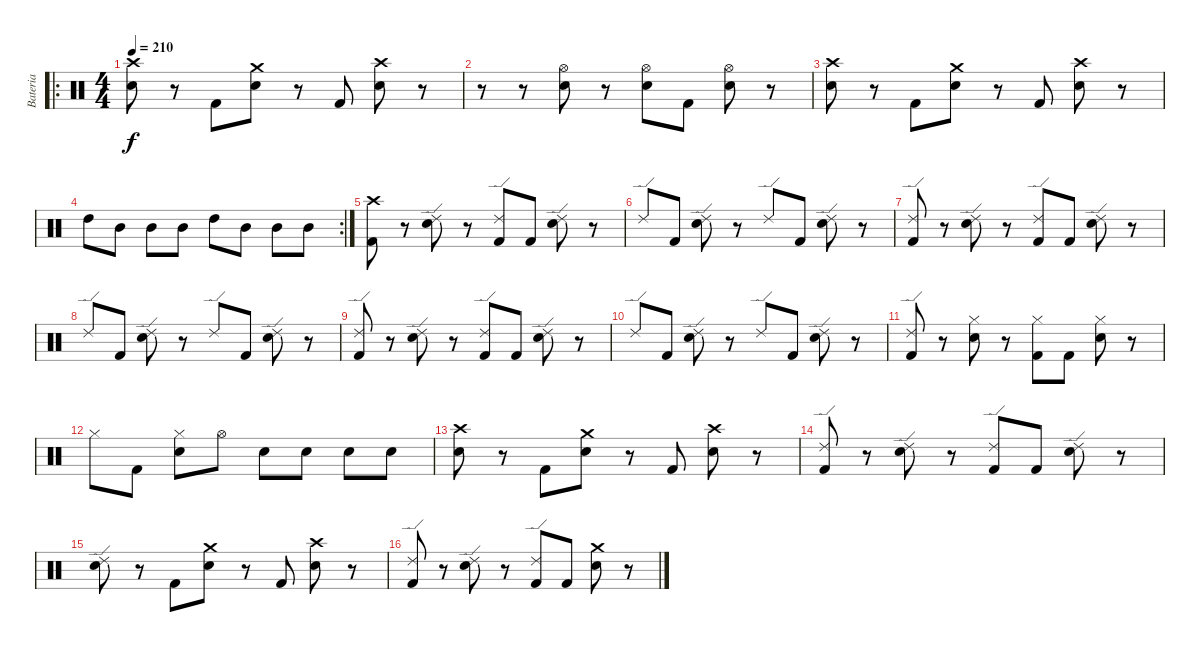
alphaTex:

\track ("Bateria" "Bateria") {instrument percussion}
\staff {score}
\articulation defaults
\ro
\ts (4 4)
\tempo 210
\clef neutral
\ks c
("Crash high (hit)" "Snare (hit) 2").8{dy f} r.8 "Kick (hit) 2".8 ("Crash medium (hit)" "Snare (hit) 2").8 r.8 "Kick (hit) 2".8 ("Crash high (hit)" "Snare (hit) 2").8 r.8 |
r.8 r.8 ("Hi-Hat (open)" "Snare (hit) 2").8 r.8 ("Hi-Hat (open)" "Snare (hit) 2").8 "Kick (hit) 2".8 ("Hi-Hat (open)" "Snare (hit) 2").8 r.8 |
("Crash high (hit)" "Snare (hit) 2").8 r.8 "Kick (hit) 2".8 ("Crash medium (hit)" "Snare (hit) 2").8 r.8 "Kick (hit) 2".8 ("Crash high (hit)" "Snare (hit) 2").8 r.8 |
\rc 2 "High Tom (hit)".8 "Mid Tom (hit)".8 "Mid Tom (hit)".8 "Mid Tom (hit)".8 "High Tom (hit)".8 "Mid Tom (hit)".8 "Mid Tom (hit)".8 "Mid Tom (hit)".8
|
("Crash high (hit)" "Kick (hit) 2").8 r.8 ("Ride (edge) 2" "Snare (hit) 2").8 r.8 ("Ride (edge) 2" "Kick (hit) 2").8 "Kick (hit) 2".8 ("Ride (edge) 2" "Snare (hit) 2").8 r.8 |
"Ride (edge) 2".8 "Kick (hit) 2".8 ("Ride (edge) 2" "Snare (hit) 2").8 r.8 "Ride (edge) 2".8 "Kick (hit) 2".8 ("Ride (edge) 2" "Snare (hit) 2").8 r.8 |
("Ride (edge) 2" "Kick (hit) 2").8 r.8 ("Ride (edge) 2" "Snare (hit) 2").8 r.8 ("Ride (edge) 2" "Kick (hit) 2").8 "Kick (hit) 2".8 ("Ride (edge) 2" "Snare (hit) 2").8 r.8 |
"Ride (edge) 2".8 "Kick (hit) 2".8 ("Ride (edge) 2" "Snare (hit) 2").8 r.8 "Ride (edge) 2".8 "Kick (hit) 2".8 ("Ride (edge) 2" "Snare (hit) 2").8 r.8 |
("Ride (edge) 2" "Kick (hit) 2").8 r.8 ("Ride (edge) 2" "Snare (hit) 2").8 r.8 ("Ride (edge) 2" "Kick (hit) 2").8 "Kick (hit) 2".8 ("Ride (edge) 2" "Snare (hit) 2").8 r.8 |
"Ride (edge) 2".8 "Kick (hit) 2".8 ("Ride (edge) 2" "Snare (hit) 2").8 r.8 "Ride (edge) 2".8 "Kick (hit) 2".8 ("Ride (edge) 2" "Snare (hit) 2").8 r.8 |
("Ride (edge) 2" "Kick (hit) 2").8 r.8 ("Hi-Hat (closed)" "Snare (hit) 2").8 r.8 ("Hi-Hat (closed)" "Kick (hit) 2").8 "Kick (hit) 2".8 ("Hi-Hat (closed)" "Snare (hit) 2").8 r.8 |
"Hi-Hat (closed)".8 "Kick (hit) 2".8 ("Hi-Hat (closed)" "Snare (hit) 2").8 "Hi-Hat (open)".8 "Snare (hit) 2".8 "Snare (hit) 2".8 "Snare (hit) 2".8 "Snare (hit) 2".8 |
("Crash high (hit)" "Snare (hit) 2").8 r.8 "Kick (hit) 2".8 ("Crash medium (hit)" "Snare (hit) 2").8 r.8 "Kick (hit) 2".8 ("Crash high (hit)" "Snare (hit) 2").8 r.8 |
("Ride (edge) 2" "Kick (hit) 2").8 r.8 ("Ride (edge) 2" "Snare (hit) 2").8 r.8 ("Ride (edge) 2" "Kick (hit) 2").8 "Kick (hit) 2".8 ("Ride (edge) 2" "Snare (hit) 2").8 r.8 |
("Ride (edge) 2" "Snare (hit) 2").8 r.8 "Kick (hit) 2".8 ("Crash medium (hit)" "Snare (hit) 2").8 r.8 "Kick (hit) 2".8 ("Crash high (hit)" "Snare (hit) 2").8 r.8 |
("Ride (edge) 2" "Kick (hit) 2").8 r.8 ("Ride (edge) 2" "Snare (hit) 2").8 r.8 ("Ride (edge) 2" "Kick (hit) 2").8 "Kick (hit) 2".8 ("Crash medium (hit)" "Snare (hit) 2").8 r.8
